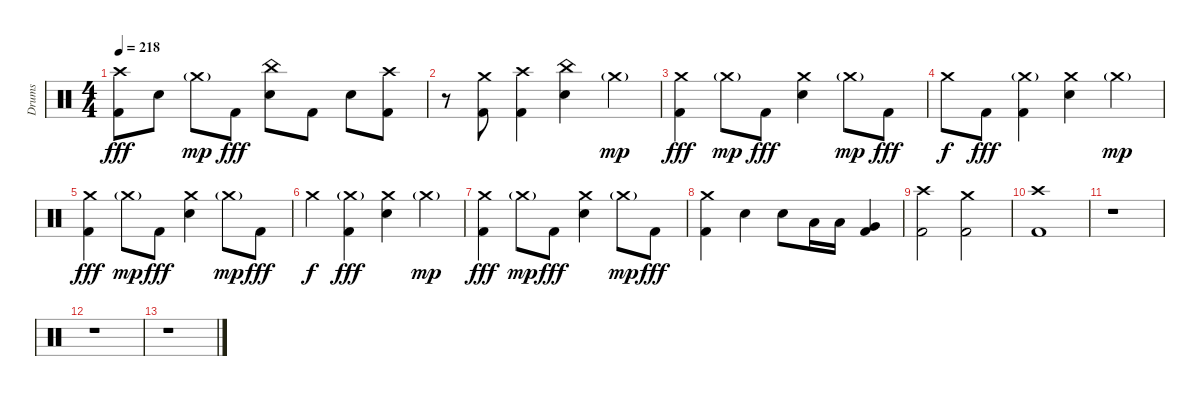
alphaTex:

\track ("Drums" "Drums") {instrument percussion}
\staff {score}
\articulation defaults
\ts (4 4)
\tempo 218
\clef neutral
\ks c
("Crash high (hit)" "Kick (hit) 2").8{dy fff} "Electric Snare (hit)".8 "Crash medium (hit)"{g}.8{dy mp} "Kick (hit) 2".8{dy fff} ("China (hit)" "Electric Snare (hit)").8 "Kick (hit) 2".8 "Electric Snare (hit)".8 ("Crash high (hit)" "Kick (hit) 2").8 |
r.8 ("Crash medium (hit)" "Kick (hit) 2").8 ("Crash high (hit)" "Kick (hit) 2").4 ("China (hit)" "Electric Snare (hit)").4 "Crash medium (hit)"{g}.4{dy mp} |
("Crash medium (hit)" "Kick (hit) 2").4{dy fff} "Crash medium (hit)"{g}.8{dy mp} "Kick (hit) 2".8{dy fff} ("Crash medium (hit)" "Electric Snare (hit)").4 "Crash medium (hit)"{g}.8{dy mp} "Kick (hit) 2".8{dy fff} |
"Crash medium (hit)".8{dy f} "Kick (hit) 2".8{dy fff} ("Crash medium (hit)"{g} "Kick (hit) 2").4 ("Crash medium (hit)" "Electric Snare (hit)").4 "Crash medium (hit)"{g}.4{dy mp} |
("Crash medium (hit)" "Kick (hit) 2").4{dy fff} "Crash medium (hit)"{g}.8{dy mp} "Kick (hit) 2".8{dy fff} ("Crash medium (hit)" "Electric Snare (hit)").4 "Crash medium (hit)"{g}.8{dy mp} "Kick (hit) 2".8{dy fff} |
"Crash medium (hit)".4{dy f} ("Crash medium (hit)"{g} "Kick (hit) 2").4{dy fff} ("Crash medium (hit)" "Electric Snare (hit)").4 "Crash medium (hit)"{g}.4{dy mp} |
("Crash medium (hit)" "Kick (hit) 2").4{dy fff} "Crash medium (hit)"{g}.8{dy mp} "Kick (hit) 2".8{dy fff} ("Crash medium (hit)" "Electric Snare (hit)").4 "Crash medium (hit)"{g}.8{dy mp} "Kick (hit) 2".8{dy fff} |
("Crash medium (hit)" "Kick (hit) 2").4 "Electric Snare (hit)".4 "Electric Snare (hit)".8 "Low Tom (hit)".16 "Low Tom (hit)".16 ("Very Low Tom (hit)" "Kick (hit) 2").4 |
("Crash high (hit)" "Kick (hit) 2").2 ("Crash medium (hit)" "Kick (hit) 2").2 |
("Crash high (hit)" "Kick (hit) 2").1{volume 0} |
r.1 |
r.1 |
r.1
